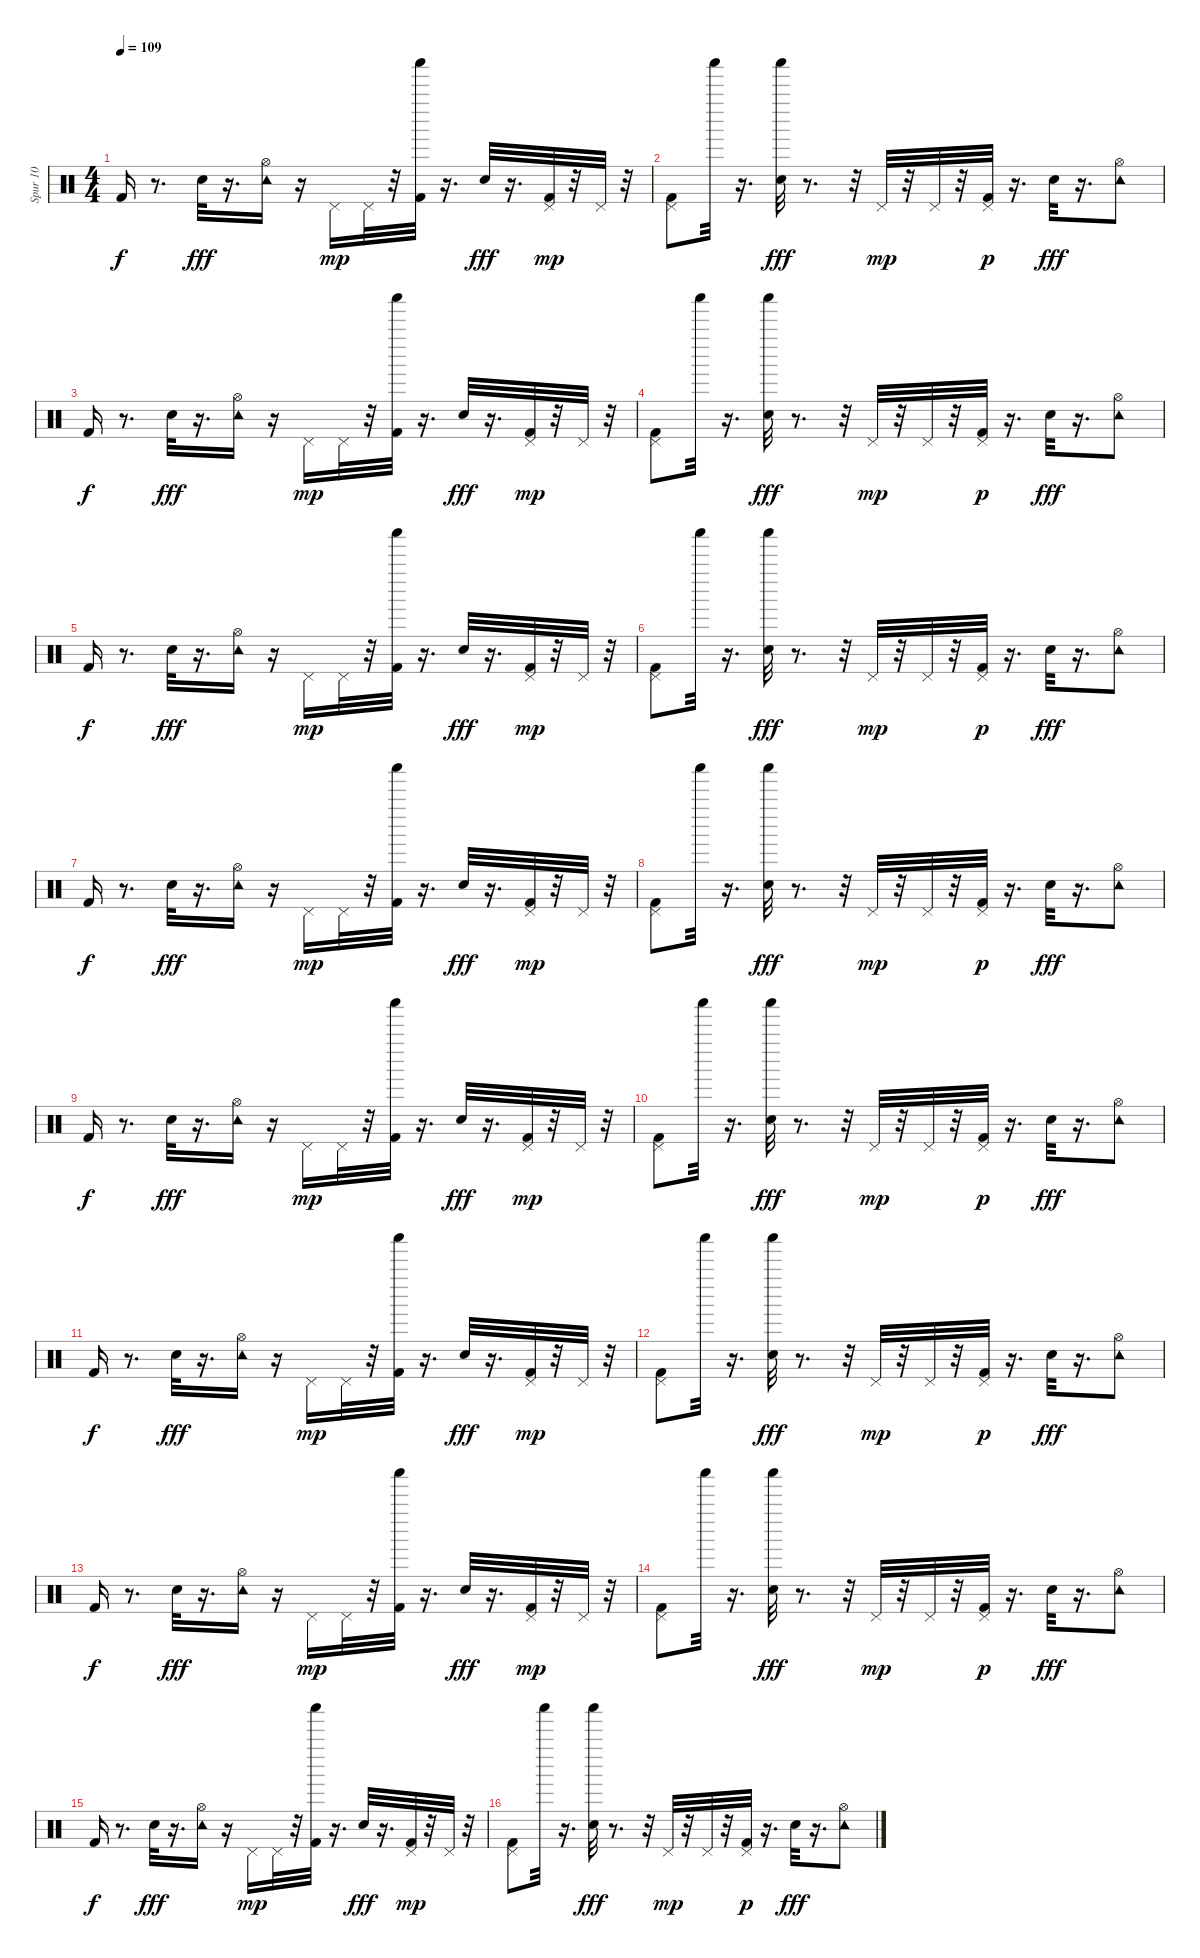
\track ("Spur 10" "Spur 10") {instrument percussion}
\staff {score}
\articulation defaults
\ts (4 4)
\tempo 109
\clef neutral
\ks c "Kick (hit) 2".16{dy f}
r.8{d} "Electric Snare (hit)".32{dy fff} r.16{d} ("Hi-Hat (open)" "Tambourine (hit)").16 r.16 "Pedal Hi-Hat (hit)".16{dy mp} "Pedal Hi-Hat (hit)".32 r.32 ("Shaker (hit)" "Kick (hit) 2").32 r.16{d} "Electric Snare (hit)".32{dy fff} r.16{d} ("Pedal Hi-Hat (hit)" "Kick (hit) 2").32{dy mp} r.32 "Pedal Hi-Hat (hit)".32 r.32 |
("Pedal Hi-Hat (hit)" "Kick (hit) 2").8 "Shaker (hit)".32 r.16{d} ("Shaker (hit)" "Electric Snare (hit)").32{dy fff} r.8{d} r.32 "Pedal Hi-Hat (hit)".32{dy mp} r.32 "Pedal Hi-Hat (hit)".32 r.32 ("Pedal Hi-Hat (hit)" "Kick (hit) 2").32{dy p} r.16{d} "Electric Snare (hit)".32{dy fff} r.16{d} ("Hi-Hat (open)" "Tambourine (hit)").8 |
"Kick (hit) 2".16{dy f} r.8{d} "Electric Snare (hit)".32{dy fff} r.16{d} ("Hi-Hat (open)" "Tambourine (hit)").16 r.16 "Pedal Hi-Hat (hit)".16{dy mp} "Pedal Hi-Hat (hit)".32 r.32 ("Shaker (hit)" "Kick (hit) 2").32 r.16{d} "Electric Snare (hit)".32{dy fff} r.16{d} ("Pedal Hi-Hat (hit)" "Kick (hit) 2").32{dy mp} r.32 "Pedal Hi-Hat (hit)".32 r.32 |
("Pedal Hi-Hat (hit)" "Kick (hit) 2").8 "Shaker (hit)".32 r.16{d} ("Shaker (hit)" "Electric Snare (hit)").32{dy fff} r.8{d} r.32 "Pedal Hi-Hat (hit)".32{dy mp} r.32 "Pedal Hi-Hat (hit)".32 r.32 ("Pedal Hi-Hat (hit)" "Kick (hit) 2").32{dy p} r.16{d} "Electric Snare (hit)".32{dy fff} r.16{d} ("Hi-Hat (open)" "Tambourine (hit)").8 |
"Kick (hit) 2".16{dy f} r.8{d} "Electric Snare (hit)".32{dy fff} r.16{d} ("Hi-Hat (open)" "Tambourine (hit)").16 r.16 "Pedal Hi-Hat (hit)".16{dy mp} "Pedal Hi-Hat (hit)".32 r.32 ("Shaker (hit)" "Kick (hit) 2").32 r.16{d} "Electric Snare (hit)".32{dy fff} r.16{d} ("Pedal Hi-Hat (hit)" "Kick (hit) 2").32{dy mp} r.32 "Pedal Hi-Hat (hit)".32 r.32 |
("Pedal Hi-Hat (hit)" "Kick (hit) 2").8 "Shaker (hit)".32 r.16{d} ("Shaker (hit)" "Electric Snare (hit)").32{dy fff} r.8{d} r.32 "Pedal Hi-Hat (hit)".32{dy mp} r.32 "Pedal Hi-Hat (hit)".32 r.32 ("Pedal Hi-Hat (hit)" "Kick (hit) 2").32{dy p} r.16{d} "Electric Snare (hit)".32{dy fff} r.16{d} ("Hi-Hat (open)" "Tambourine (hit)").8 |
"Kick (hit) 2".16{dy f} r.8{d} "Electric Snare (hit)".32{dy fff} r.16{d} ("Hi-Hat (open)" "Tambourine (hit)").16 r.16 "Pedal Hi-Hat (hit)".16{dy mp} "Pedal Hi-Hat (hit)".32 r.32 ("Shaker (hit)" "Kick (hit) 2").32 r.16{d} "Electric Snare (hit)".32{dy fff} r.16{d} ("Pedal Hi-Hat (hit)" "Kick (hit) 2").32{dy mp} r.32 "Pedal Hi-Hat (hit)".32 r.32 |
("Pedal Hi-Hat (hit)" "Kick (hit) 2").8 "Shaker (hit)".32 r.16{d} ("Shaker (hit)" "Electric Snare (hit)").32{dy fff} r.8{d} r.32 "Pedal Hi-Hat (hit)".32{dy mp} r.32 "Pedal Hi-Hat (hit)".32 r.32 ("Pedal Hi-Hat (hit)" "Kick (hit) 2").32{dy p} r.16{d} "Electric Snare (hit)".32{dy fff} r.16{d} ("Hi-Hat (open)" "Tambourine (hit)").8 |
"Kick (hit) 2".16{dy f} r.8{d} "Electric Snare (hit)".32{dy fff} r.16{d} ("Hi-Hat (open)" "Tambourine (hit)").16 r.16 "Pedal Hi-Hat (hit)".16{dy mp} "Pedal Hi-Hat (hit)".32 r.32 ("Shaker (hit)" "Kick (hit) 2").32 r.16{d} "Electric Snare (hit)".32{dy fff} r.16{d} ("Pedal Hi-Hat (hit)" "Kick (hit) 2").32{dy mp} r.32 "Pedal Hi-Hat (hit)".32 r.32 |
("Pedal Hi-Hat (hit)" "Kick (hit) 2").8 "Shaker (hit)".32 r.16{d} ("Shaker (hit)" "Electric Snare (hit)").32{dy fff} r.8{d} r.32 "Pedal Hi-Hat (hit)".32{dy mp} r.32 "Pedal Hi-Hat (hit)".32 r.32 ("Pedal Hi-Hat (hit)" "Kick (hit) 2").32{dy p} r.16{d} "Electric Snare (hit)".32{dy fff} r.16{d} ("Hi-Hat (open)" "Tambourine (hit)").8 |
"Kick (hit) 2".16{dy f} r.8{d} "Electric Snare (hit)".32{dy fff} r.16{d} ("Hi-Hat (open)" "Tambourine (hit)").16 r.16 "Pedal Hi-Hat (hit)".16{dy mp} "Pedal Hi-Hat (hit)".32 r.32 ("Shaker (hit)" "Kick (hit) 2").32 r.16{d} "Electric Snare (hit)".32{dy fff} r.16{d} ("Pedal Hi-Hat (hit)" "Kick (hit) 2").32{dy mp} r.32 "Pedal Hi-Hat (hit)".32 r.32 |
("Pedal Hi-Hat (hit)" "Kick (hit) 2").8 "Shaker (hit)".32 r.16{d} ("Shaker (hit)" "Electric Snare (hit)").32{dy fff} r.8{d} r.32 "Pedal Hi-Hat (hit)".32{dy mp} r.32 "Pedal Hi-Hat (hit)".32 r.32 ("Pedal Hi-Hat (hit)" "Kick (hit) 2").32{dy p} r.16{d} "Electric Snare (hit)".32{dy fff} r.16{d} ("Hi-Hat (open)" "Tambourine (hit)").8 |
"Kick (hit) 2".16{dy f} r.8{d} "Electric Snare (hit)".32{dy fff} r.16{d} ("Hi-Hat (open)" "Tambourine (hit)").16 r.16 "Pedal Hi-Hat (hit)".16{dy mp} "Pedal Hi-Hat (hit)".32 r.32 ("Shaker (hit)" "Kick (hit) 2").32 r.16{d} "Electric Snare (hit)".32{dy fff} r.16{d} ("Pedal Hi-Hat (hit)" "Kick (hit) 2").32{dy mp} r.32 "Pedal Hi-Hat (hit)".32 r.32 |
("Pedal Hi-Hat (hit)" "Kick (hit) 2").8 "Shaker (hit)".32 r.16{d} ("Shaker (hit)" "Electric Snare (hit)").32{dy fff} r.8{d} r.32 "Pedal Hi-Hat (hit)".32{dy mp} r.32 "Pedal Hi-Hat (hit)".32 r.32 ("Pedal Hi-Hat (hit)" "Kick (hit) 2").32{dy p} r.16{d} "Electric Snare (hit)".32{dy fff} r.16{d} ("Hi-Hat (open)" "Tambourine (hit)").8 |
"Kick (hit) 2".16{dy f} r.8{d} "Electric Snare (hit)".32{dy fff} r.16{d} ("Hi-Hat (open)" "Tambourine (hit)").16 r.16 "Pedal Hi-Hat (hit)".16{dy mp} "Pedal Hi-Hat (hit)".32 r.32 ("Shaker (hit)" "Kick (hit) 2").32 r.16{d} "Electric Snare (hit)".32{dy fff} r.16{d} ("Pedal Hi-Hat (hit)" "Kick (hit) 2").32{dy mp} r.32 "Pedal Hi-Hat (hit)".32 r.32 |
("Pedal Hi-Hat (hit)" "Kick (hit) 2").8 "Shaker (hit)".32 r.16{d} ("Shaker (hit)" "Electric Snare (hit)").32{dy fff} r.8{d} r.32 "Pedal Hi-Hat (hit)".32{dy mp} r.32 "Pedal Hi-Hat (hit)".32 r.32 ("Pedal Hi-Hat (hit)" "Kick (hit) 2").32{dy p} r.16{d} "Electric Snare (hit)".32{dy fff} r.16{d} ("Hi-Hat (open)" "Tambourine (hit)").8
